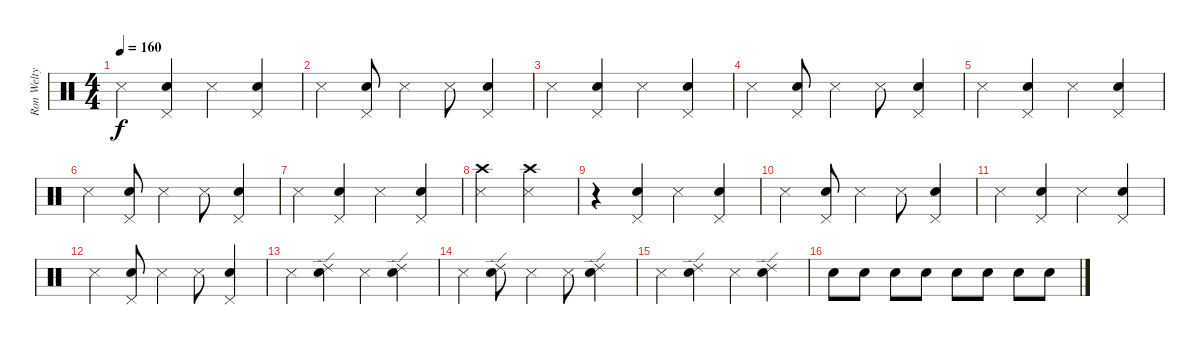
\track ("Ron Welty" "Ron Welty") {instrument percussion}
\staff {score}
\articulation defaults
\ts (4 4)
\tempo 160
\clef neutral
\ks c "Metronome (hit)".4{dy f}
("Pedal Hi-Hat (hit)" "Snare (hit) 2").4 "Metronome (hit)".4 ("Pedal Hi-Hat (hit)" "Snare (hit) 2").4 |
"Metronome (hit)".4 ("Pedal Hi-Hat (hit)" "Snare (hit) 2").8 "Metronome (hit)".4 "Metronome (hit)".8 ("Pedal Hi-Hat (hit)" "Snare (hit) 2").4 |
"Metronome (hit)".4 ("Pedal Hi-Hat (hit)" "Snare (hit) 2").4 "Metronome (hit)".4 ("Pedal Hi-Hat (hit)" "Snare (hit) 2").4 |
"Metronome (hit)".4 ("Pedal Hi-Hat (hit)" "Snare (hit) 2").8 "Metronome (hit)".4 "Metronome (hit)".8 ("Pedal Hi-Hat (hit)" "Snare (hit) 2").4 |
"Metronome (hit)".4 ("Pedal Hi-Hat (hit)" "Snare (hit) 2").4 "Metronome (hit)".4 ("Pedal Hi-Hat (hit)" "Snare (hit) 2").4 |
"Metronome (hit)".4 ("Pedal Hi-Hat (hit)" "Snare (hit) 2").8 "Metronome (hit)".4 "Metronome (hit)".8 ("Pedal Hi-Hat (hit)" "Snare (hit) 2").4 |
"Metronome (hit)".4 ("Pedal Hi-Hat (hit)" "Snare (hit) 2").4 "Metronome (hit)".4 ("Pedal Hi-Hat (hit)" "Snare (hit) 2").4 |
("Crash high (hit)" "Metronome (hit)").2 ("Crash high (hit)" "Metronome (hit)").2 |
r.4 ("Pedal Hi-Hat (hit)" "Snare (hit) 2").4 "Metronome (hit)".4 ("Pedal Hi-Hat (hit)" "Snare (hit) 2").4 |
"Metronome (hit)".4 ("Pedal Hi-Hat (hit)" "Snare (hit) 2").8 "Metronome (hit)".4 "Metronome (hit)".8 ("Pedal Hi-Hat (hit)" "Snare (hit) 2").4 |
"Metronome (hit)".4 ("Pedal Hi-Hat (hit)" "Snare (hit) 2").4 "Metronome (hit)".4 ("Pedal Hi-Hat (hit)" "Snare (hit) 2").4 |
"Metronome (hit)".4 ("Pedal Hi-Hat (hit)" "Snare (hit) 2").8 "Metronome (hit)".4 "Metronome (hit)".8 ("Pedal Hi-Hat (hit)" "Snare (hit) 2").4 |
"Metronome (hit)".4 ("Ride (edge) 2" "Snare (hit) 2").4 "Metronome (hit)".4 ("Ride (edge) 2" "Snare (hit) 2").4 |
"Metronome (hit)".4 ("Ride (edge) 2" "Snare (hit) 2").8 "Metronome (hit)".4 "Metronome (hit)".8 ("Ride (edge) 2" "Snare (hit) 2").4 |
"Metronome (hit)".4 ("Ride (edge) 2" "Snare (hit) 2").4 "Metronome (hit)".4 ("Ride (edge) 2" "Snare (hit) 2").4 |
"Snare (hit) 2".8 "Snare (hit) 2".8 "Snare (hit) 2".8 "Snare (hit) 2".8 "Snare (hit) 2".8 "Snare (hit) 2".8 "Snare (hit) 2".8 "Snare (hit) 2".8
